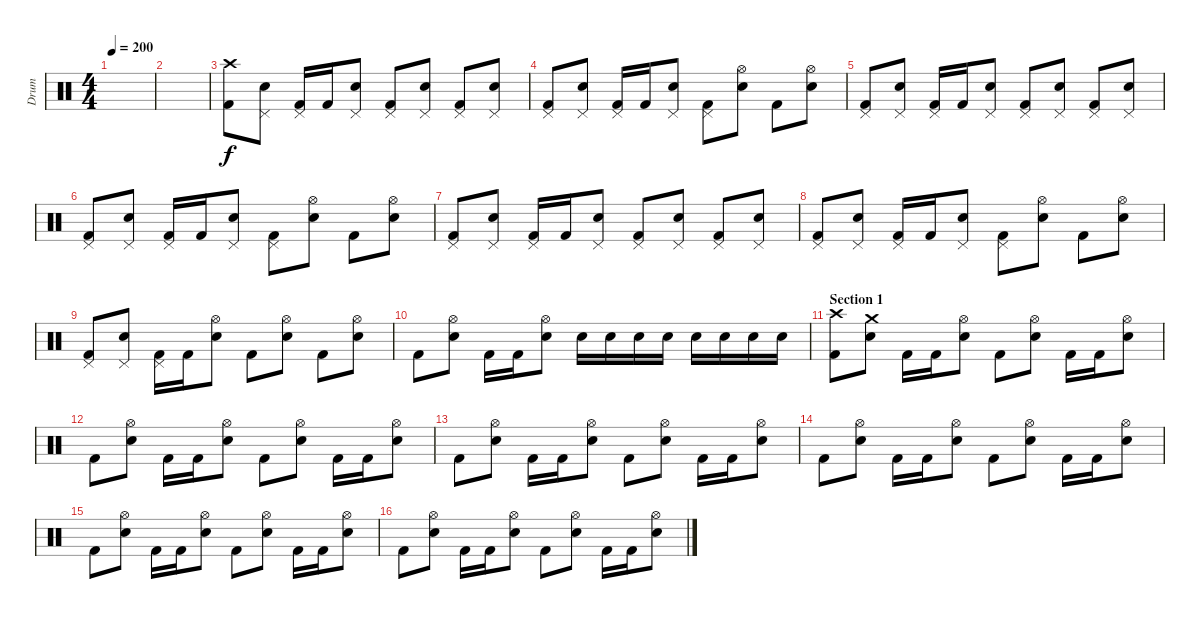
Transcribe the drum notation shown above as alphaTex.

\track ("Drum" "Drum") {instrument percussion}
\staff {score}
\articulation defaults
\ts (4 4)
\tempo 200
\clef neutral
\ks c
|
|
("Crash high (hit)" "Kick (hit) 2").8 ("Pedal Hi-Hat (hit)" "Electric Snare (hit)").8 ("Pedal Hi-Hat (hit)" "Kick (hit) 2").16 "Kick (hit) 2".16 ("Pedal Hi-Hat (hit)" "Electric Snare (hit)").8 ("Pedal Hi-Hat (hit)" "Kick (hit) 2").8 ("Pedal Hi-Hat (hit)" "Electric Snare (hit)").8 ("Pedal Hi-Hat (hit)" "Kick (hit) 2").8 ("Pedal Hi-Hat (hit)" "Electric Snare (hit)").8 |
("Pedal Hi-Hat (hit)" "Kick (hit) 2").8 ("Pedal Hi-Hat (hit)" "Electric Snare (hit)").8 ("Pedal Hi-Hat (hit)" "Kick (hit) 2").16 "Kick (hit) 2".16 ("Pedal Hi-Hat (hit)" "Electric Snare (hit)").8 ("Pedal Hi-Hat (hit)" "Kick (hit) 2").8 ("Hi-Hat (open)" "Electric Snare (hit)").8 "Kick (hit) 2".8 ("Hi-Hat (open)" "Electric Snare (hit)").8 |
("Pedal Hi-Hat (hit)" "Kick (hit) 2").8 ("Pedal Hi-Hat (hit)" "Electric Snare (hit)").8 ("Pedal Hi-Hat (hit)" "Kick (hit) 2").16 "Kick (hit) 2".16 ("Pedal Hi-Hat (hit)" "Electric Snare (hit)").8 ("Pedal Hi-Hat (hit)" "Kick (hit) 2").8 ("Pedal Hi-Hat (hit)" "Electric Snare (hit)").8 ("Pedal Hi-Hat (hit)" "Kick (hit) 2").8 ("Pedal Hi-Hat (hit)" "Electric Snare (hit)").8 |
("Pedal Hi-Hat (hit)" "Kick (hit) 2").8 ("Pedal Hi-Hat (hit)" "Electric Snare (hit)").8 ("Pedal Hi-Hat (hit)" "Kick (hit) 2").16 "Kick (hit) 2".16 ("Pedal Hi-Hat (hit)" "Electric Snare (hit)").8 ("Pedal Hi-Hat (hit)" "Kick (hit) 2").8 ("Hi-Hat (open)" "Electric Snare (hit)").8 "Kick (hit) 2".8 ("Hi-Hat (open)" "Electric Snare (hit)").8 |
("Pedal Hi-Hat (hit)" "Kick (hit) 2").8 ("Pedal Hi-Hat (hit)" "Electric Snare (hit)").8 ("Pedal Hi-Hat (hit)" "Kick (hit) 2").16 "Kick (hit) 2".16 ("Pedal Hi-Hat (hit)" "Electric Snare (hit)").8 ("Pedal Hi-Hat (hit)" "Kick (hit) 2").8 ("Pedal Hi-Hat (hit)" "Electric Snare (hit)").8 ("Pedal Hi-Hat (hit)" "Kick (hit) 2").8 ("Pedal Hi-Hat (hit)" "Electric Snare (hit)").8 |
("Pedal Hi-Hat (hit)" "Kick (hit) 2").8 ("Pedal Hi-Hat (hit)" "Electric Snare (hit)").8 ("Pedal Hi-Hat (hit)" "Kick (hit) 2").16 "Kick (hit) 2".16 ("Pedal Hi-Hat (hit)" "Electric Snare (hit)").8 ("Pedal Hi-Hat (hit)" "Kick (hit) 2").8 ("Hi-Hat (open)" "Electric Snare (hit)").8 "Kick (hit) 2".8 ("Hi-Hat (open)" "Electric Snare (hit)").8 |
("Pedal Hi-Hat (hit)" "Kick (hit) 2").8 ("Pedal Hi-Hat (hit)" "Electric Snare (hit)").8 ("Pedal Hi-Hat (hit)" "Kick (hit) 2").16 "Kick (hit) 2".16 ("Hi-Hat (open)" "Electric Snare (hit)").8 "Kick (hit) 2".8 ("Hi-Hat (open)" "Electric Snare (hit)").8 "Kick (hit) 2".8 ("Hi-Hat (open)" "Electric Snare (hit)").8 |
"Kick (hit) 2".8 ("Hi-Hat (open)" "Electric Snare (hit)").8 "Kick (hit) 2".16 "Kick (hit) 2".16 ("Hi-Hat (open)" "Electric Snare (hit)").8 "Electric Snare (hit)".16 "Electric Snare (hit)".16 "Electric Snare (hit)".16 "Electric Snare (hit)".16 "Electric Snare (hit)".16 "Electric Snare (hit)".16 "Electric Snare (hit)".16 "Electric Snare (hit)".16 |
\section ("" "Section 1")
("Crash high (hit)" "Kick (hit) 2").8 ("Crash medium (hit)" "Electric Snare (hit)").8 "Kick (hit) 2".16 "Kick (hit) 2".16 ("Hi-Hat (open)" "Electric Snare (hit)").8 "Kick (hit) 2".8 ("Hi-Hat (open)" "Electric Snare (hit)").8 "Kick (hit) 2".16 "Kick (hit) 2".16 ("Hi-Hat (open)" "Electric Snare (hit)").8 |
"Kick (hit) 2".8 ("Hi-Hat (open)" "Electric Snare (hit)").8 "Kick (hit) 2".16 "Kick (hit) 2".16 ("Hi-Hat (open)" "Electric Snare (hit)").8 "Kick (hit) 2".8 ("Hi-Hat (open)" "Electric Snare (hit)").8 "Kick (hit) 2".16 "Kick (hit) 2".16 ("Hi-Hat (open)" "Electric Snare (hit)").8 |
"Kick (hit) 2".8 ("Hi-Hat (open)" "Electric Snare (hit)").8 "Kick (hit) 2".16 "Kick (hit) 2".16 ("Hi-Hat (open)" "Electric Snare (hit)").8 "Kick (hit) 2".8 ("Hi-Hat (open)" "Electric Snare (hit)").8 "Kick (hit) 2".16 "Kick (hit) 2".16 ("Hi-Hat (open)" "Electric Snare (hit)").8 |
"Kick (hit) 2".8 ("Hi-Hat (open)" "Electric Snare (hit)").8 "Kick (hit) 2".16 "Kick (hit) 2".16 ("Hi-Hat (open)" "Electric Snare (hit)").8 "Kick (hit) 2".8 ("Hi-Hat (open)" "Electric Snare (hit)").8 "Kick (hit) 2".16 "Kick (hit) 2".16 ("Hi-Hat (open)" "Electric Snare (hit)").8 |
"Kick (hit) 2".8 ("Hi-Hat (open)" "Electric Snare (hit)").8 "Kick (hit) 2".16 "Kick (hit) 2".16 ("Hi-Hat (open)" "Electric Snare (hit)").8 "Kick (hit) 2".8 ("Hi-Hat (open)" "Electric Snare (hit)").8 "Kick (hit) 2".16 "Kick (hit) 2".16 ("Hi-Hat (open)" "Electric Snare (hit)").8 |
"Kick (hit) 2".8 ("Hi-Hat (open)" "Electric Snare (hit)").8 "Kick (hit) 2".16 "Kick (hit) 2".16 ("Hi-Hat (open)" "Electric Snare (hit)").8 "Kick (hit) 2".8 ("Hi-Hat (open)" "Electric Snare (hit)").8 "Kick (hit) 2".16 "Kick (hit) 2".16 ("Hi-Hat (open)" "Electric Snare (hit)").8
